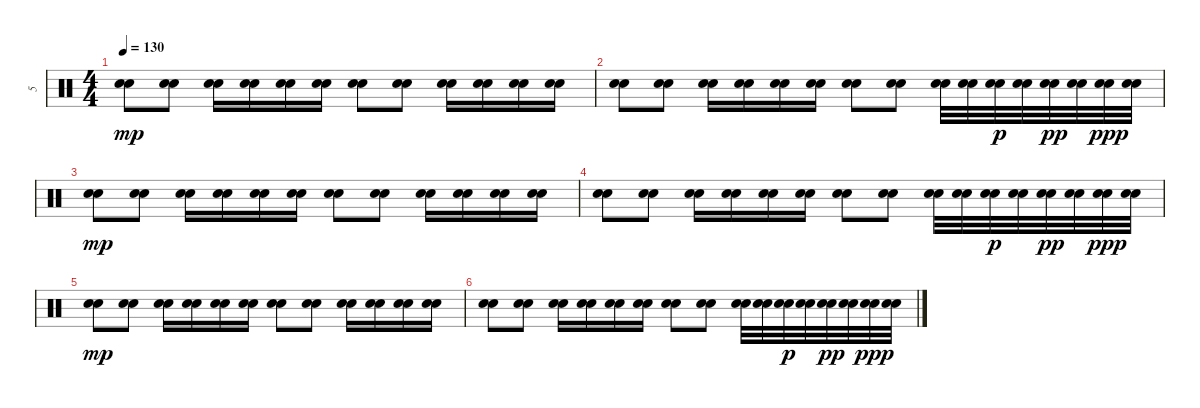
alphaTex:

\track ("5" "5") {instrument percussion}
\staff {score}
\articulation defaults
\ts (4 4)
\tempo 130
\clef neutral
\ks c
("Electric Snare (hit)" "Snare (hit) 2").8{dy mp} ("Electric Snare (hit)" "Snare (hit) 2").8 ("Electric Snare (hit)" "Snare (hit) 2").16 ("Electric Snare (hit)" "Snare (hit) 2").16 ("Electric Snare (hit)" "Snare (hit) 2").16 ("Electric Snare (hit)" "Snare (hit) 2").16 ("Electric Snare (hit)" "Snare (hit) 2").8 ("Electric Snare (hit)" "Snare (hit) 2").8 ("Electric Snare (hit)" "Snare (hit) 2").16 ("Electric Snare (hit)" "Snare (hit) 2").16 ("Electric Snare (hit)" "Snare (hit) 2").16 ("Electric Snare (hit)" "Snare (hit) 2").16 |
("Electric Snare (hit)" "Snare (hit) 2").8 ("Electric Snare (hit)" "Snare (hit) 2").8 ("Electric Snare (hit)" "Snare (hit) 2").16 ("Electric Snare (hit)" "Snare (hit) 2").16 ("Electric Snare (hit)" "Snare (hit) 2").16 ("Electric Snare (hit)" "Snare (hit) 2").16 ("Electric Snare (hit)" "Snare (hit) 2").8 ("Electric Snare (hit)" "Snare (hit) 2").8 ("Electric Snare (hit)" "Snare (hit) 2").32 ("Electric Snare (hit)" "Snare (hit) 2").32 ("Electric Snare (hit)" "Snare (hit) 2").32{dy p} ("Electric Snare (hit)" "Snare (hit) 2").32 ("Electric Snare (hit)" "Snare (hit) 2").32{dy pp} ("Electric Snare (hit)" "Snare (hit) 2").32 ("Electric Snare (hit)" "Snare (hit) 2").32{dy ppp} ("Electric Snare (hit)" "Snare (hit) 2").32 |
("Electric Snare (hit)" "Snare (hit) 2").8{dy mp volume 0} ("Electric Snare (hit)" "Snare (hit) 2").8 ("Electric Snare (hit)" "Snare (hit) 2").16 ("Electric Snare (hit)" "Snare (hit) 2").16 ("Electric Snare (hit)" "Snare (hit) 2").16 ("Electric Snare (hit)" "Snare (hit) 2").16 ("Electric Snare (hit)" "Snare (hit) 2").8 ("Electric Snare (hit)" "Snare (hit) 2").8 ("Electric Snare (hit)" "Snare (hit) 2").16 ("Electric Snare (hit)" "Snare (hit) 2").16 ("Electric Snare (hit)" "Snare (hit) 2").16 ("Electric Snare (hit)" "Snare (hit) 2").16 |
("Electric Snare (hit)" "Snare (hit) 2").8 ("Electric Snare (hit)" "Snare (hit) 2").8 ("Electric Snare (hit)" "Snare (hit) 2").16 ("Electric Snare (hit)" "Snare (hit) 2").16 ("Electric Snare (hit)" "Snare (hit) 2").16 ("Electric Snare (hit)" "Snare (hit) 2").16 ("Electric Snare (hit)" "Snare (hit) 2").8 ("Electric Snare (hit)" "Snare (hit) 2").8 ("Electric Snare (hit)" "Snare (hit) 2").32 ("Electric Snare (hit)" "Snare (hit) 2").32 ("Electric Snare (hit)" "Snare (hit) 2").32{dy p} ("Electric Snare (hit)" "Snare (hit) 2").32 ("Electric Snare (hit)" "Snare (hit) 2").32{dy pp} ("Electric Snare (hit)" "Snare (hit) 2").32 ("Electric Snare (hit)" "Snare (hit) 2").32{dy ppp} ("Electric Snare (hit)" "Snare (hit) 2").32 |
("Electric Snare (hit)" "Snare (hit) 2").8{dy mp} ("Electric Snare (hit)" "Snare (hit) 2").8 ("Electric Snare (hit)" "Snare (hit) 2").16 ("Electric Snare (hit)" "Snare (hit) 2").16 ("Electric Snare (hit)" "Snare (hit) 2").16 ("Electric Snare (hit)" "Snare (hit) 2").16 ("Electric Snare (hit)" "Snare (hit) 2").8 ("Electric Snare (hit)" "Snare (hit) 2").8 ("Electric Snare (hit)" "Snare (hit) 2").16 ("Electric Snare (hit)" "Snare (hit) 2").16 ("Electric Snare (hit)" "Snare (hit) 2").16 ("Electric Snare (hit)" "Snare (hit) 2").16 |
("Electric Snare (hit)" "Snare (hit) 2").8 ("Electric Snare (hit)" "Snare (hit) 2").8 ("Electric Snare (hit)" "Snare (hit) 2").16 ("Electric Snare (hit)" "Snare (hit) 2").16 ("Electric Snare (hit)" "Snare (hit) 2").16 ("Electric Snare (hit)" "Snare (hit) 2").16 ("Electric Snare (hit)" "Snare (hit) 2").8 ("Electric Snare (hit)" "Snare (hit) 2").8 ("Electric Snare (hit)" "Snare (hit) 2").32 ("Electric Snare (hit)" "Snare (hit) 2").32 ("Electric Snare (hit)" "Snare (hit) 2").32{dy p} ("Electric Snare (hit)" "Snare (hit) 2").32 ("Electric Snare (hit)" "Snare (hit) 2").32{dy pp} ("Electric Snare (hit)" "Snare (hit) 2").32 ("Electric Snare (hit)" "Snare (hit) 2").32{dy ppp} ("Electric Snare (hit)" "Snare (hit) 2").32
